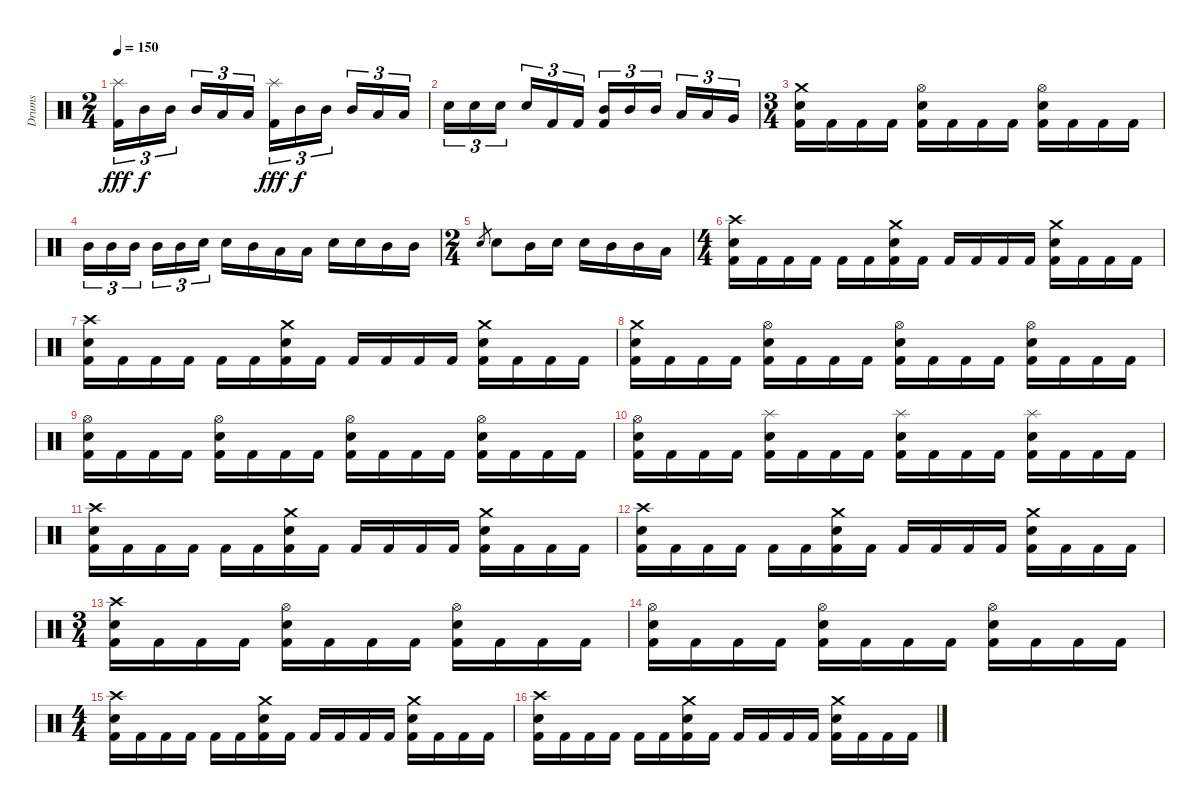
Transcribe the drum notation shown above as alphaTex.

\track ("Drums" "Drums") {instrument percussion}
\staff {score}
\articulation defaults
\ts (2 4)
\tempo 150
\clef neutral
\ks c
("Splash (hit)" "Kick (hit) 2").16{tu (3 2) dy fff} "Mid Tom (hit)".16{tu (3 2) dy f} "Mid Tom (hit)".16{tu (3 2)} "Mid Tom (hit)".16{tu (3 2)} "Low Tom (hit)".16{tu (3 2)} "Low Tom (hit)".16{tu (3 2)} ("Splash (hit)" "Kick (hit) 2").16{tu (3 2) dy fff} "Mid Tom (hit)".16{tu (3 2) dy f} "Mid Tom (hit)".16{tu (3 2)} "Mid Tom (hit)".16{tu (3 2)} "Low Tom (hit)".16{tu (3 2)} "Low Tom (hit)".16{tu (3 2)} |
"Electric Snare (hit)".16{tu (3 2)} "Electric Snare (hit)".16{tu (3 2)} "Electric Snare (hit)".16{tu (3 2)} "Electric Snare (hit)".16{tu (3 2)} "Kick (hit) 2".16{tu (3 2)} "Kick (hit) 2".16{tu (3 2)} ("Mid Tom (hit)" "Kick (hit) 2").16{tu (3 2)} "Mid Tom (hit)".16{tu (3 2)} "Mid Tom (hit)".16{tu (3 2)} "Low Tom (hit)".16{tu (3 2)} "Low Tom (hit)".16{tu (3 2)} "Very Low Tom (hit)".16{tu (3 2)} |
\ts (3 4)
("Crash medium (hit)" "Electric Snare (hit)" "Kick (hit) 2").16 "Kick (hit) 2".16 "Kick (hit) 2".16 "Kick (hit) 2".16 ("Hi-Hat (open)" "Electric Snare (hit)" "Kick (hit) 2").16 "Kick (hit) 2".16 "Kick (hit) 2".16 "Kick (hit) 2".16 ("Hi-Hat (open)" "Electric Snare (hit)" "Kick (hit) 2").16 "Kick (hit) 2".16 "Kick (hit) 2".16 "Kick (hit) 2".16 |
"Mid Tom (hit)".16{tu (3 2)} "Mid Tom (hit)".16{tu (3 2)} "Mid Tom (hit)".16{tu (3 2)} "Mid Tom (hit)".16{tu (3 2)} "Mid Tom (hit)".16{tu (3 2)} "Electric Snare (hit)".16{tu (3 2)} "Electric Snare (hit)".16 "Mid Tom (hit)".16 "Low Tom (hit)".16 "Low Tom (hit)".16 "Electric Snare (hit)".16 "Electric Snare (hit)".16 "Mid Tom (hit)".16 "Mid Tom (hit)".16 |
\ts (2 4)
"Electric Snare (hit)".8{gr} "Electric Snare (hit)".8 "Mid Tom (hit)".16 "Electric Snare (hit)".16 "Electric Snare (hit)".16 "Mid Tom (hit)".16 "Mid Tom (hit)".16 "Low Tom (hit)".16 |
\ts (4 4)
("Crash high (hit)" "Electric Snare (hit)" "Kick (hit) 2").16 "Kick (hit) 2".16 "Kick (hit) 2".16 "Kick (hit) 2".16 "Kick (hit) 2".16 "Kick (hit) 2".16 ("Crash medium (hit)" "Electric Snare (hit)" "Kick (hit) 2").16 "Kick (hit) 2".16 "Kick (hit) 2".16 "Kick (hit) 2".16 "Kick (hit) 2".16 "Kick (hit) 2".16 ("Crash medium (hit)" "Electric Snare (hit)" "Kick (hit) 2").16 "Kick (hit) 2".16 "Kick (hit) 2".16 "Kick (hit) 2".16 |
("Crash high (hit)" "Electric Snare (hit)" "Kick (hit) 2").16 "Kick (hit) 2".16 "Kick (hit) 2".16 "Kick (hit) 2".16 "Kick (hit) 2".16 "Kick (hit) 2".16 ("Crash medium (hit)" "Electric Snare (hit)" "Kick (hit) 2").16 "Kick (hit) 2".16 "Kick (hit) 2".16 "Kick (hit) 2".16 "Kick (hit) 2".16 "Kick (hit) 2".16 ("Crash medium (hit)" "Electric Snare (hit)" "Kick (hit) 2").16 "Kick (hit) 2".16 "Kick (hit) 2".16 "Kick (hit) 2".16 |
("Crash medium (hit)" "Electric Snare (hit)" "Kick (hit) 2").16 "Kick (hit) 2".16 "Kick (hit) 2".16 "Kick (hit) 2".16 ("Hi-Hat (open)" "Electric Snare (hit)" "Kick (hit) 2").16 "Kick (hit) 2".16 "Kick (hit) 2".16 "Kick (hit) 2".16 ("Hi-Hat (open)" "Electric Snare (hit)" "Kick (hit) 2").16 "Kick (hit) 2".16 "Kick (hit) 2".16 "Kick (hit) 2".16 ("Hi-Hat (open)" "Electric Snare (hit)" "Kick (hit) 2").16 "Kick (hit) 2".16 "Kick (hit) 2".16 "Kick (hit) 2".16 |
("Hi-Hat (open)" "Electric Snare (hit)" "Kick (hit) 2").16 "Kick (hit) 2".16 "Kick (hit) 2".16 "Kick (hit) 2".16 ("Hi-Hat (open)" "Electric Snare (hit)" "Kick (hit) 2").16 "Kick (hit) 2".16 "Kick (hit) 2".16 "Kick (hit) 2".16 ("Hi-Hat (open)" "Electric Snare (hit)" "Kick (hit) 2").16 "Kick (hit) 2".16 "Kick (hit) 2".16 "Kick (hit) 2".16 ("Hi-Hat (open)" "Electric Snare (hit)" "Kick (hit) 2").16 "Kick (hit) 2".16 "Kick (hit) 2".16 "Kick (hit) 2".16 |
("Hi-Hat (open)" "Electric Snare (hit)" "Kick (hit) 2").16 "Kick (hit) 2".16 "Kick (hit) 2".16 "Kick (hit) 2".16 ("Splash (hit)" "Electric Snare (hit)" "Kick (hit) 2").16 "Kick (hit) 2".16 "Kick (hit) 2".16 "Kick (hit) 2".16 ("Splash (hit)" "Electric Snare (hit)" "Kick (hit) 2").16 "Kick (hit) 2".16 "Kick (hit) 2".16 "Kick (hit) 2".16 ("Splash (hit)" "Electric Snare (hit)" "Kick (hit) 2").16 "Kick (hit) 2".16 "Kick (hit) 2".16 "Kick (hit) 2".16 |
("Crash high (hit)" "Electric Snare (hit)" "Kick (hit) 2").16 "Kick (hit) 2".16 "Kick (hit) 2".16 "Kick (hit) 2".16 "Kick (hit) 2".16 "Kick (hit) 2".16 ("Crash medium (hit)" "Electric Snare (hit)" "Kick (hit) 2").16 "Kick (hit) 2".16 "Kick (hit) 2".16 "Kick (hit) 2".16 "Kick (hit) 2".16 "Kick (hit) 2".16 ("Crash medium (hit)" "Electric Snare (hit)" "Kick (hit) 2").16 "Kick (hit) 2".16 "Kick (hit) 2".16 "Kick (hit) 2".16 |
("Crash high (hit)" "Electric Snare (hit)" "Kick (hit) 2").16 "Kick (hit) 2".16 "Kick (hit) 2".16 "Kick (hit) 2".16 "Kick (hit) 2".16 "Kick (hit) 2".16 ("Crash medium (hit)" "Electric Snare (hit)" "Kick (hit) 2").16 "Kick (hit) 2".16 "Kick (hit) 2".16 "Kick (hit) 2".16 "Kick (hit) 2".16 "Kick (hit) 2".16 ("Crash medium (hit)" "Electric Snare (hit)" "Kick (hit) 2").16 "Kick (hit) 2".16 "Kick (hit) 2".16 "Kick (hit) 2".16 |
\ts (3 4)
("Crash high (hit)" "Electric Snare (hit)" "Kick (hit) 2").16 "Kick (hit) 2".16 "Kick (hit) 2".16 "Kick (hit) 2".16 ("Hi-Hat (open)" "Electric Snare (hit)" "Kick (hit) 2").16 "Kick (hit) 2".16 "Kick (hit) 2".16 "Kick (hit) 2".16 ("Hi-Hat (open)" "Electric Snare (hit)" "Kick (hit) 2").16 "Kick (hit) 2".16 "Kick (hit) 2".16 "Kick (hit) 2".16 |
("Hi-Hat (open)" "Electric Snare (hit)" "Kick (hit) 2").16 "Kick (hit) 2".16 "Kick (hit) 2".16 "Kick (hit) 2".16 ("Hi-Hat (open)" "Electric Snare (hit)" "Kick (hit) 2").16 "Kick (hit) 2".16 "Kick (hit) 2".16 "Kick (hit) 2".16 ("Hi-Hat (open)" "Electric Snare (hit)" "Kick (hit) 2").16 "Kick (hit) 2".16 "Kick (hit) 2".16 "Kick (hit) 2".16 |
\ts (4 4)
("Crash high (hit)" "Electric Snare (hit)" "Kick (hit) 2").16 "Kick (hit) 2".16 "Kick (hit) 2".16 "Kick (hit) 2".16 "Kick (hit) 2".16 "Kick (hit) 2".16 ("Crash medium (hit)" "Electric Snare (hit)" "Kick (hit) 2").16 "Kick (hit) 2".16 "Kick (hit) 2".16 "Kick (hit) 2".16 "Kick (hit) 2".16 "Kick (hit) 2".16 ("Crash medium (hit)" "Electric Snare (hit)" "Kick (hit) 2").16 "Kick (hit) 2".16 "Kick (hit) 2".16 "Kick (hit) 2".16 |
("Crash high (hit)" "Electric Snare (hit)" "Kick (hit) 2").16 "Kick (hit) 2".16 "Kick (hit) 2".16 "Kick (hit) 2".16 "Kick (hit) 2".16 "Kick (hit) 2".16 ("Crash medium (hit)" "Electric Snare (hit)" "Kick (hit) 2").16 "Kick (hit) 2".16 "Kick (hit) 2".16 "Kick (hit) 2".16 "Kick (hit) 2".16 "Kick (hit) 2".16 ("Crash medium (hit)" "Electric Snare (hit)" "Kick (hit) 2").16 "Kick (hit) 2".16 "Kick (hit) 2".16 "Kick (hit) 2".16
